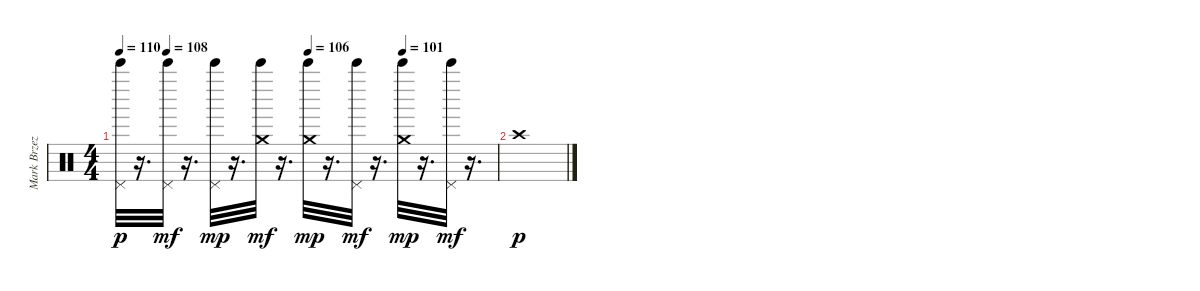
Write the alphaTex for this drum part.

\track ("Mark Brzezicki - Cymbal (Crash, Open & C" "Mark Brzez") {instrument percussion}
\staff {score}
\articulation defaults
\ts (4 4)
\tempo 110
\tempo (108 0.125)
\tempo (106 0.5)
\tempo (101 0.75)
\clef neutral
\ks c
("Pedal Hi-Hat (hit)" "Bell Tree (hit)").32{dy p} r.16{d} ("Pedal Hi-Hat (hit)" "Bell Tree (hit)").32{dy mf} r.16{d} ("Pedal Hi-Hat (hit)" "Bell Tree (hit)").32{dy mp} r.16{d} ("Crash medium (hit)" "Bell Tree (hit)").32{dy mf} r.16{d} ("Crash medium (hit)" "Bell Tree (hit)").32{dy mp} r.16{d} ("Pedal Hi-Hat (hit)" "Bell Tree (hit)").32{dy mf} r.16{d} ("Crash medium (hit)" "Bell Tree (hit)").32{dy mp} r.16{d} ("Pedal Hi-Hat (hit)" "Bell Tree (hit)").32{dy mf} r.16{d} |
"Crash high (hit)".1{dy p}
